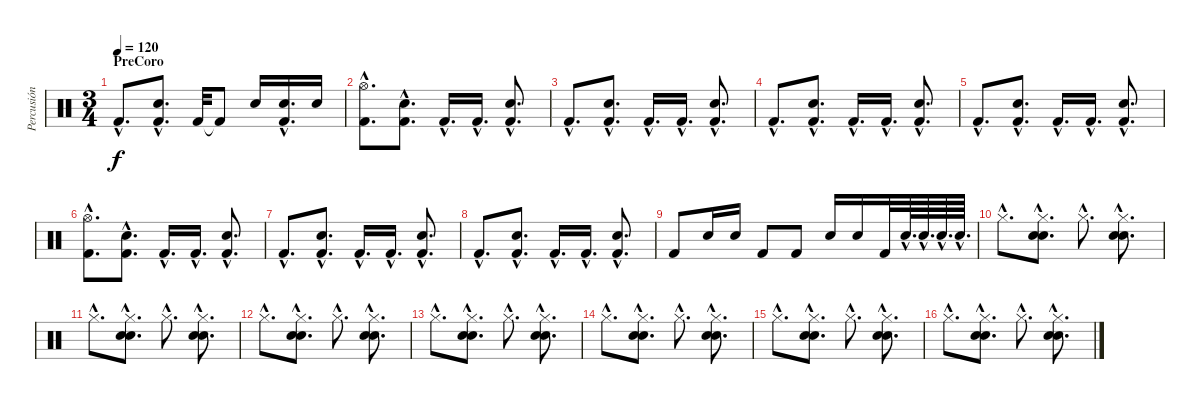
\track ("Percusión" "Percusión") {instrument percussion}
\staff {score}
\articulation defaults
\ts (3 4)
\section ("" "PreCoro")
\tempo 120
\clef neutral
\ks c "Kick (hit) 2"{hac}.8{d dy f}
("Electric Snare (hit)"{hac} "Kick (hit) 2"{hac}).8{d} "Kick (hit) 2".32 "Kick (hit) 2"{t}.8 "Electric Snare (hit)".16 ("Electric Snare (hit)"{hac} "Kick (hit) 2"{hac}).16{d} "Electric Snare (hit)".16 |
("Hi-Hat (open)"{hac} "Kick (hit) 2"{hac}).8{d} ("Electric Snare (hit)"{hac} "Kick (hit) 2"{hac}).8{d} "Kick (hit) 2"{hac}.16{d} "Kick (hit) 2"{hac}.16{d} ("Electric Snare (hit)"{hac} "Kick (hit) 2"{hac}).8{d} |
"Kick (hit) 2"{hac}.8{d} ("Electric Snare (hit)"{hac} "Kick (hit) 2"{hac}).8{d} "Kick (hit) 2"{hac}.16{d} "Kick (hit) 2"{hac}.16{d} ("Electric Snare (hit)"{hac} "Kick (hit) 2"{hac}).8{d} |
"Kick (hit) 2"{hac}.8{d} ("Electric Snare (hit)"{hac} "Kick (hit) 2"{hac}).8{d} "Kick (hit) 2"{hac}.16{d} "Kick (hit) 2"{hac}.16{d} ("Electric Snare (hit)"{hac} "Kick (hit) 2"{hac}).8{d} |
"Kick (hit) 2"{hac}.8{d} ("Electric Snare (hit)"{hac} "Kick (hit) 2"{hac}).8{d} "Kick (hit) 2"{hac}.16{d} "Kick (hit) 2"{hac}.16{d} ("Electric Snare (hit)"{hac} "Kick (hit) 2"{hac}).8{d} |
("Hi-Hat (open)"{hac} "Kick (hit) 2"{hac}).8{d} ("Electric Snare (hit)"{hac} "Kick (hit) 2"{hac}).8{d} "Kick (hit) 2"{hac}.16{d} "Kick (hit) 2"{hac}.16{d} ("Electric Snare (hit)"{hac} "Kick (hit) 2"{hac}).8{d} |
"Kick (hit) 2"{hac}.8{d} ("Electric Snare (hit)"{hac} "Kick (hit) 2"{hac}).8{d} "Kick (hit) 2"{hac}.16{d} "Kick (hit) 2"{hac}.16{d} ("Electric Snare (hit)"{hac} "Kick (hit) 2"{hac}).8{d} |
"Kick (hit) 2"{hac}.8{d} ("Electric Snare (hit)"{hac} "Kick (hit) 2"{hac}).8{d} "Kick (hit) 2"{hac}.16{d} "Kick (hit) 2"{hac}.16{d} ("Electric Snare (hit)"{hac} "Kick (hit) 2"{hac}).8{d} |
"Kick (hit) 2".8 "Electric Snare (hit)".16 "Electric Snare (hit)".16 "Kick (hit) 2".8 "Kick (hit) 2".8 "Electric Snare (hit)".16 "Electric Snare (hit)".16 "Kick (hit) 2".32 "Electric Snare (hit)"{hac}.64{d} "Electric Snare (hit)"{hac}.64{d} "Electric Snare (hit)"{hac}.64{d} "Electric Snare (hit)"{hac}.64{d} |
"Hi-Hat (closed)"{hac}.8{d} ("Electric Snare (hit)"{hac} "Snare (hit) 2"{hac} "Hi-Hat (closed)"{hac}).8{d} "Hi-Hat (closed)"{hac}.8{d} ("Electric Snare (hit)"{hac} "Snare (hit) 2"{hac} "Hi-Hat (closed)"{hac}).8{d} |
"Hi-Hat (closed)"{hac}.8{d} ("Electric Snare (hit)"{hac} "Snare (hit) 2"{hac} "Hi-Hat (closed)"{hac}).8{d} "Hi-Hat (closed)"{hac}.8{d} ("Electric Snare (hit)"{hac} "Snare (hit) 2"{hac} "Hi-Hat (closed)"{hac}).8{d} |
"Hi-Hat (closed)"{hac}.8{d} ("Electric Snare (hit)"{hac} "Snare (hit) 2"{hac} "Hi-Hat (closed)"{hac}).8{d} "Hi-Hat (closed)"{hac}.8{d} ("Electric Snare (hit)"{hac} "Snare (hit) 2"{hac} "Hi-Hat (closed)"{hac}).8{d} |
"Hi-Hat (closed)"{hac}.8{d} ("Electric Snare (hit)"{hac} "Snare (hit) 2"{hac} "Hi-Hat (closed)"{hac}).8{d} "Hi-Hat (closed)"{hac}.8{d} ("Electric Snare (hit)"{hac} "Snare (hit) 2"{hac} "Hi-Hat (closed)"{hac}).8{d} |
"Hi-Hat (closed)"{hac}.8{d} ("Electric Snare (hit)"{hac} "Snare (hit) 2"{hac} "Hi-Hat (closed)"{hac}).8{d} "Hi-Hat (closed)"{hac}.8{d} ("Electric Snare (hit)"{hac} "Snare (hit) 2"{hac} "Hi-Hat (closed)"{hac}).8{d} |
"Hi-Hat (closed)"{hac}.8{d} ("Electric Snare (hit)"{hac} "Snare (hit) 2"{hac} "Hi-Hat (closed)"{hac}).8{d} "Hi-Hat (closed)"{hac}.8{d} ("Electric Snare (hit)"{hac} "Snare (hit) 2"{hac} "Hi-Hat (closed)"{hac}).8{d} |
"Hi-Hat (closed)"{hac}.8{d} ("Electric Snare (hit)"{hac} "Snare (hit) 2"{hac} "Hi-Hat (closed)"{hac}).8{d} "Hi-Hat (closed)"{hac}.8{d} ("Electric Snare (hit)"{hac} "Snare (hit) 2"{hac} "Hi-Hat (closed)"{hac}).8{d}
